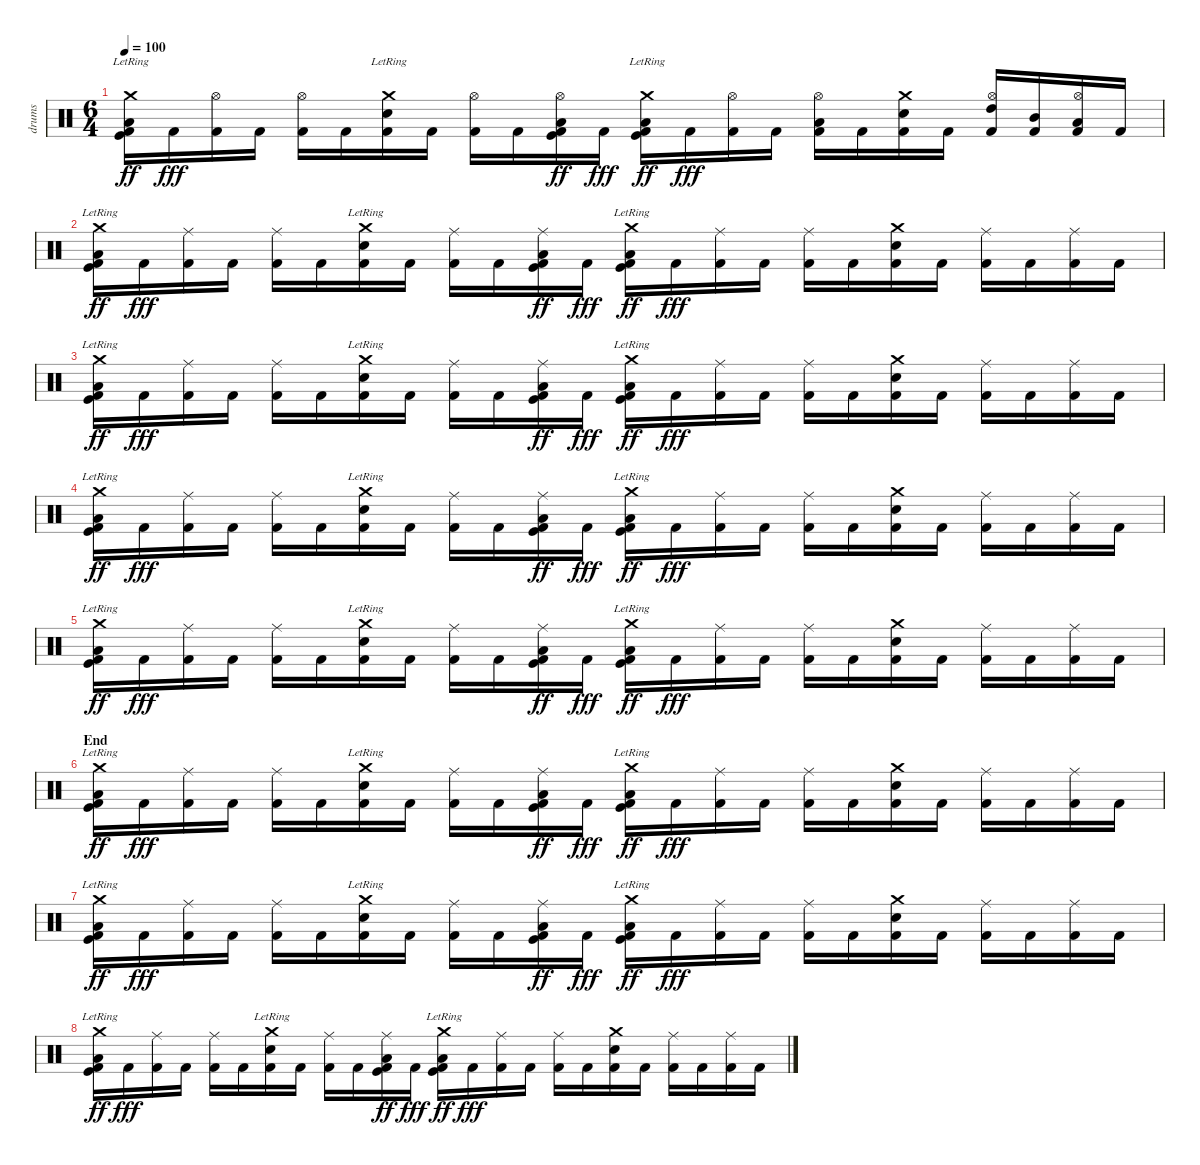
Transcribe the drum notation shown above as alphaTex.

\track ("drums" "drums") {instrument percussion}
\staff {score}
\articulation defaults
\ts (6 4)
\tempo 100
\clef neutral
\ks c
("Crash medium (hit)"{lr} "Kick (hit)" "Low Floor Tom (hit)" "Kick (hit) 2").16{dy ff} "Kick (hit) 2".16{dy fff} ("Hi-Hat (open)" "Kick (hit) 2").16 "Kick (hit) 2".16 ("Hi-Hat (open)" "Kick (hit) 2").16 "Kick (hit) 2".16 ("Crash medium (hit)"{lr} "Electric Snare (hit)" "Kick (hit) 2").16 "Kick (hit) 2".16 ("Hi-Hat (open)" "Kick (hit) 2").16 "Kick (hit) 2".16 ("Hi-Hat (open)" "Kick (hit)" "Low Floor Tom (hit)" "Kick (hit) 2").16{dy ff} "Kick (hit) 2".16{dy fff} ("Crash medium (hit)"{lr} "Kick (hit)" "Low Floor Tom (hit)" "Kick (hit) 2").16{dy ff} "Kick (hit) 2".16{dy fff} ("Hi-Hat (open)" "Kick (hit) 2").16 "Kick (hit) 2".16 ("Hi-Hat (open)" "Low Floor Tom (hit)" "Kick (hit) 2").16 "Kick (hit) 2".16 ("Crash medium (hit)" "Snare (hit) 2" "Kick (hit) 2").16 "Kick (hit) 2".16 ("Hi-Hat (open)" "High Tom (hit)" "Kick (hit) 2").16 ("Mid Tom (hit)" "Kick (hit) 2").16 ("Hi-Hat (open)" "Low Tom (hit)" "Kick (hit) 2").16 "Kick (hit) 2".16 |
("Crash medium (hit)"{lr} "Kick (hit)" "Low Floor Tom (hit)" "Kick (hit) 2").16{dy ff} "Kick (hit) 2".16{dy fff} ("Ride (middle)" "Kick (hit) 2").16 "Kick (hit) 2".16 ("Ride (middle)" "Kick (hit) 2").16 "Kick (hit) 2".16 ("Crash medium (hit)"{lr} "Electric Snare (hit)" "Kick (hit) 2").16 "Kick (hit) 2".16 ("Ride (middle)" "Kick (hit) 2").16 "Kick (hit) 2".16 ("Ride (middle)" "Kick (hit)" "Low Floor Tom (hit)" "Kick (hit) 2").16{dy ff} "Kick (hit) 2".16{dy fff} ("Crash medium (hit)"{lr} "Kick (hit)" "Low Floor Tom (hit)" "Kick (hit) 2").16{dy ff} "Kick (hit) 2".16{dy fff} ("Ride (middle)" "Kick (hit) 2").16 "Kick (hit) 2".16 ("Ride (middle)" "Kick (hit) 2").16 "Kick (hit) 2".16 ("Crash medium (hit)" "Electric Snare (hit)" "Kick (hit) 2").16 "Kick (hit) 2".16 ("Ride (middle)" "Kick (hit) 2").16 "Kick (hit) 2".16 ("Ride (middle)" "Kick (hit) 2").16 "Kick (hit) 2".16 |
("Crash medium (hit)"{lr} "Kick (hit)" "Low Floor Tom (hit)" "Kick (hit) 2").16{dy ff} "Kick (hit) 2".16{dy fff} ("Ride (middle)" "Kick (hit) 2").16 "Kick (hit) 2".16 ("Ride (middle)" "Kick (hit) 2").16 "Kick (hit) 2".16 ("Crash medium (hit)"{lr} "Electric Snare (hit)" "Kick (hit) 2").16 "Kick (hit) 2".16 ("Ride (middle)" "Kick (hit) 2").16 "Kick (hit) 2".16 ("Ride (middle)" "Kick (hit)" "Low Floor Tom (hit)" "Kick (hit) 2").16{dy ff} "Kick (hit) 2".16{dy fff} ("Crash medium (hit)"{lr} "Kick (hit)" "Low Floor Tom (hit)" "Kick (hit) 2").16{dy ff} "Kick (hit) 2".16{dy fff} ("Ride (middle)" "Kick (hit) 2").16 "Kick (hit) 2".16 ("Ride (middle)" "Kick (hit) 2").16 "Kick (hit) 2".16 ("Crash medium (hit)" "Electric Snare (hit)" "Kick (hit) 2").16 "Kick (hit) 2".16 ("Ride (middle)" "Kick (hit) 2").16 "Kick (hit) 2".16 ("Ride (middle)" "Kick (hit) 2").16 "Kick (hit) 2".16 |
("Crash medium (hit)"{lr} "Kick (hit)" "Low Floor Tom (hit)" "Kick (hit) 2").16{dy ff} "Kick (hit) 2".16{dy fff} ("Ride (middle)" "Kick (hit) 2").16 "Kick (hit) 2".16 ("Ride (middle)" "Kick (hit) 2").16 "Kick (hit) 2".16 ("Crash medium (hit)"{lr} "Electric Snare (hit)" "Kick (hit) 2").16 "Kick (hit) 2".16 ("Ride (middle)" "Kick (hit) 2").16 "Kick (hit) 2".16 ("Ride (middle)" "Kick (hit)" "Low Floor Tom (hit)" "Kick (hit) 2").16{dy ff} "Kick (hit) 2".16{dy fff} ("Crash medium (hit)"{lr} "Kick (hit)" "Low Floor Tom (hit)" "Kick (hit) 2").16{dy ff} "Kick (hit) 2".16{dy fff} ("Ride (middle)" "Kick (hit) 2").16 "Kick (hit) 2".16 ("Ride (middle)" "Kick (hit) 2").16 "Kick (hit) 2".16 ("Crash medium (hit)" "Electric Snare (hit)" "Kick (hit) 2").16 "Kick (hit) 2".16 ("Ride (middle)" "Kick (hit) 2").16 "Kick (hit) 2".16 ("Ride (middle)" "Kick (hit) 2").16 "Kick (hit) 2".16 |
("Crash medium (hit)"{lr} "Kick (hit)" "Low Floor Tom (hit)" "Kick (hit) 2").16{dy ff} "Kick (hit) 2".16{dy fff} ("Ride (middle)" "Kick (hit) 2").16 "Kick (hit) 2".16 ("Ride (middle)" "Kick (hit) 2").16 "Kick (hit) 2".16 ("Crash medium (hit)"{lr} "Electric Snare (hit)" "Kick (hit) 2").16 "Kick (hit) 2".16 ("Ride (middle)" "Kick (hit) 2").16 "Kick (hit) 2".16 ("Ride (middle)" "Kick (hit)" "Low Floor Tom (hit)" "Kick (hit) 2").16{dy ff} "Kick (hit) 2".16{dy fff} ("Crash medium (hit)"{lr} "Kick (hit)" "Low Floor Tom (hit)" "Kick (hit) 2").16{dy ff} "Kick (hit) 2".16{dy fff} ("Ride (middle)" "Kick (hit) 2").16 "Kick (hit) 2".16 ("Ride (middle)" "Kick (hit) 2").16 "Kick (hit) 2".16 ("Crash medium (hit)" "Electric Snare (hit)" "Kick (hit) 2").16 "Kick (hit) 2".16 ("Ride (middle)" "Kick (hit) 2").16 "Kick (hit) 2".16 ("Ride (middle)" "Kick (hit) 2").16 "Kick (hit) 2".16 |
\section ("" "End")
("Crash medium (hit)"{lr} "Kick (hit)" "Low Floor Tom (hit)" "Kick (hit) 2").16{dy ff} "Kick (hit) 2".16{dy fff} ("Ride (middle)" "Kick (hit) 2").16 "Kick (hit) 2".16 ("Ride (middle)" "Kick (hit) 2").16 "Kick (hit) 2".16 ("Crash medium (hit)"{lr} "Electric Snare (hit)" "Kick (hit) 2").16 "Kick (hit) 2".16 ("Ride (middle)" "Kick (hit) 2").16 "Kick (hit) 2".16 ("Ride (middle)" "Kick (hit)" "Low Floor Tom (hit)" "Kick (hit) 2").16{dy ff} "Kick (hit) 2".16{dy fff} ("Crash medium (hit)"{lr} "Kick (hit)" "Low Floor Tom (hit)" "Kick (hit) 2").16{dy ff} "Kick (hit) 2".16{dy fff} ("Ride (middle)" "Kick (hit) 2").16 "Kick (hit) 2".16 ("Ride (middle)" "Kick (hit) 2").16 "Kick (hit) 2".16 ("Crash medium (hit)" "Electric Snare (hit)" "Kick (hit) 2").16 "Kick (hit) 2".16 ("Ride (middle)" "Kick (hit) 2").16 "Kick (hit) 2".16 ("Ride (middle)" "Kick (hit) 2").16 "Kick (hit) 2".16 |
("Crash medium (hit)"{lr} "Kick (hit)" "Low Floor Tom (hit)" "Kick (hit) 2").16{dy ff} "Kick (hit) 2".16{dy fff} ("Ride (middle)" "Kick (hit) 2").16 "Kick (hit) 2".16 ("Ride (middle)" "Kick (hit) 2").16 "Kick (hit) 2".16 ("Crash medium (hit)"{lr} "Electric Snare (hit)" "Kick (hit) 2").16 "Kick (hit) 2".16 ("Ride (middle)" "Kick (hit) 2").16 "Kick (hit) 2".16 ("Ride (middle)" "Kick (hit)" "Low Floor Tom (hit)" "Kick (hit) 2").16{dy ff} "Kick (hit) 2".16{dy fff} ("Crash medium (hit)"{lr} "Kick (hit)" "Low Floor Tom (hit)" "Kick (hit) 2").16{dy ff} "Kick (hit) 2".16{dy fff} ("Ride (middle)" "Kick (hit) 2").16 "Kick (hit) 2".16 ("Ride (middle)" "Kick (hit) 2").16 "Kick (hit) 2".16 ("Crash medium (hit)" "Electric Snare (hit)" "Kick (hit) 2").16 "Kick (hit) 2".16 ("Ride (middle)" "Kick (hit) 2").16 "Kick (hit) 2".16 ("Ride (middle)" "Kick (hit) 2").16 "Kick (hit) 2".16 |
("Crash medium (hit)"{lr} "Kick (hit)" "Low Floor Tom (hit)" "Kick (hit) 2").16{dy ff volume 11} "Kick (hit) 2".16{dy fff} ("Ride (middle)" "Kick (hit) 2").16 "Kick (hit) 2".16 ("Ride (middle)" "Kick (hit) 2").16 "Kick (hit) 2".16 ("Crash medium (hit)"{lr} "Electric Snare (hit)" "Kick (hit) 2").16 "Kick (hit) 2".16 ("Ride (middle)" "Kick (hit) 2").16 "Kick (hit) 2".16 ("Ride (middle)" "Kick (hit)" "Low Floor Tom (hit)" "Kick (hit) 2").16{dy ff} "Kick (hit) 2".16{dy fff} ("Crash medium (hit)"{lr} "Kick (hit)" "Low Floor Tom (hit)" "Kick (hit) 2").16{dy ff} "Kick (hit) 2".16{dy fff} ("Ride (middle)" "Kick (hit) 2").16 "Kick (hit) 2".16 ("Ride (middle)" "Kick (hit) 2").16 "Kick (hit) 2".16 ("Crash medium (hit)" "Electric Snare (hit)" "Kick (hit) 2").16 "Kick (hit) 2".16 ("Ride (middle)" "Kick (hit) 2").16 "Kick (hit) 2".16 ("Ride (middle)" "Kick (hit) 2").16 "Kick (hit) 2".16
